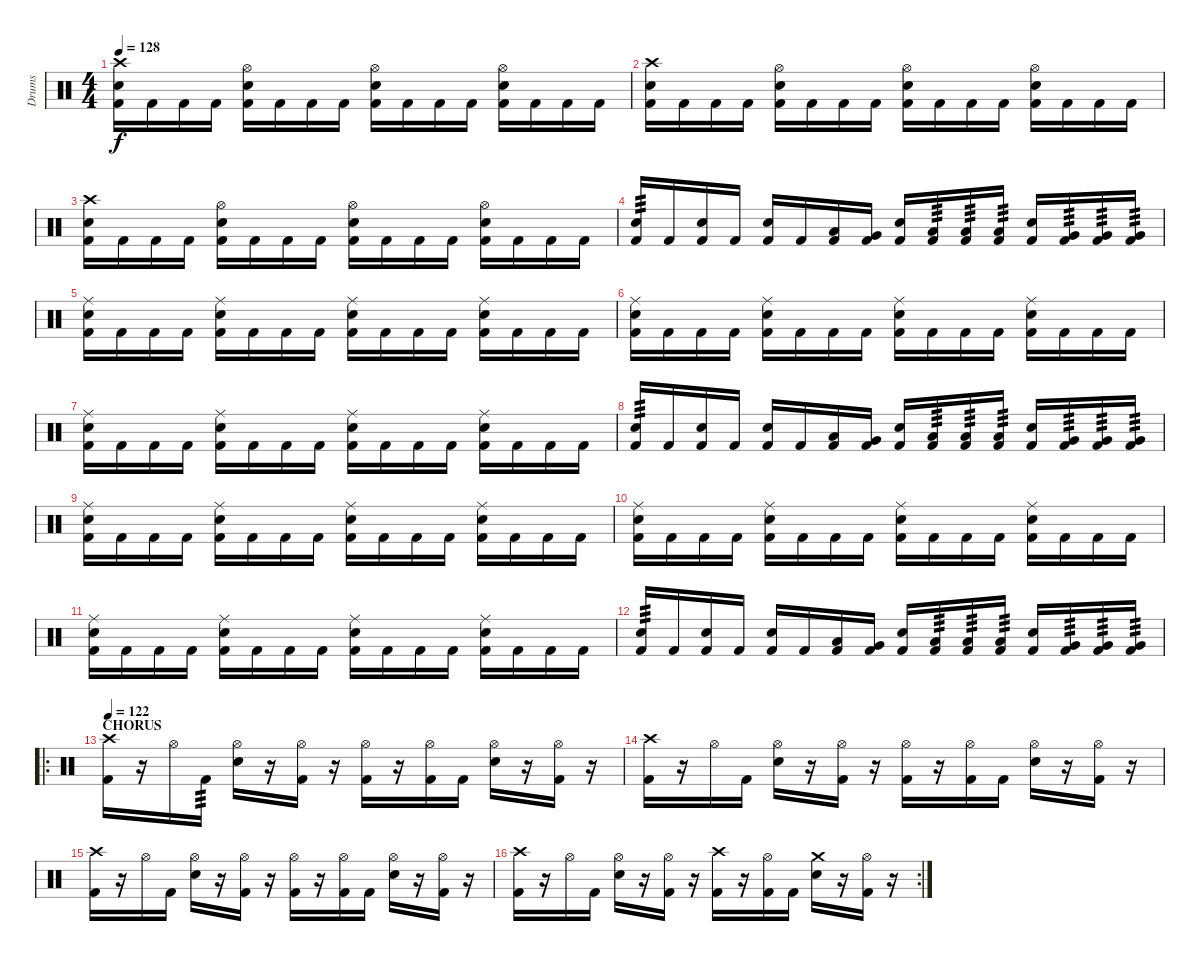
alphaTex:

\track ("Drums" "Drums") {instrument percussion}
\staff {score}
\articulation defaults
\ts (4 4)
\tempo 128
\clef neutral
\ks c
("Crash high (hit)" "Electric Snare (hit)" "Kick (hit) 2").16{dy f} "Kick (hit) 2".16 "Kick (hit) 2".16 "Kick (hit) 2".16 ("Hi-Hat (open)" "Electric Snare (hit)" "Kick (hit) 2").16 "Kick (hit) 2".16 "Kick (hit) 2".16 "Kick (hit) 2".16 ("Hi-Hat (open)" "Electric Snare (hit)" "Kick (hit) 2").16 "Kick (hit) 2".16 "Kick (hit) 2".16 "Kick (hit) 2".16 ("Hi-Hat (open)" "Electric Snare (hit)" "Kick (hit) 2").16 "Kick (hit) 2".16 "Kick (hit) 2".16 "Kick (hit) 2".16 |
("Crash high (hit)" "Electric Snare (hit)" "Kick (hit) 2").16 "Kick (hit) 2".16 "Kick (hit) 2".16 "Kick (hit) 2".16 ("Hi-Hat (open)" "Electric Snare (hit)" "Kick (hit) 2").16 "Kick (hit) 2".16 "Kick (hit) 2".16 "Kick (hit) 2".16 ("Hi-Hat (open)" "Electric Snare (hit)" "Kick (hit) 2").16 "Kick (hit) 2".16 "Kick (hit) 2".16 "Kick (hit) 2".16 ("Hi-Hat (open)" "Electric Snare (hit)" "Kick (hit) 2").16 "Kick (hit) 2".16 "Kick (hit) 2".16 "Kick (hit) 2".16 |
("Crash high (hit)" "Electric Snare (hit)" "Kick (hit) 2").16 "Kick (hit) 2".16 "Kick (hit) 2".16 "Kick (hit) 2".16 ("Hi-Hat (open)" "Electric Snare (hit)" "Kick (hit) 2").16 "Kick (hit) 2".16 "Kick (hit) 2".16 "Kick (hit) 2".16 ("Hi-Hat (open)" "Electric Snare (hit)" "Kick (hit) 2").16 "Kick (hit) 2".16 "Kick (hit) 2".16 "Kick (hit) 2".16 ("Hi-Hat (open)" "Electric Snare (hit)" "Kick (hit) 2").16 "Kick (hit) 2".16 "Kick (hit) 2".16 "Kick (hit) 2".16 |
("Electric Snare (hit)" "Kick (hit) 2").16{tp 3} "Kick (hit) 2".16 ("Electric Snare (hit)" "Kick (hit) 2").16 "Kick (hit) 2".16 ("Electric Snare (hit)" "Kick (hit) 2").16 "Kick (hit) 2".16 ("Low Tom (hit)" "Kick (hit) 2").16 ("Very Low Tom (hit)" "Kick (hit) 2").16 ("Electric Snare (hit)" "Kick (hit) 2").16 ("Low Tom (hit)" "Kick (hit) 2").16{tp 3} ("Low Tom (hit)" "Kick (hit) 2").16{tp 3} ("Low Tom (hit)" "Kick (hit) 2").16{tp 3} ("Electric Snare (hit)" "Kick (hit) 2").16 ("Very Low Tom (hit)" "Kick (hit) 2").16{tp 3} ("Very Low Tom (hit)" "Kick (hit) 2").16{tp 3} ("Very Low Tom (hit)" "Kick (hit) 2").16{tp 3} |
("Ride (middle)" "Electric Snare (hit)" "Kick (hit) 2").16 "Kick (hit) 2".16 "Kick (hit) 2".16 "Kick (hit) 2".16 ("Ride (middle)" "Electric Snare (hit)" "Kick (hit) 2").16 "Kick (hit) 2".16 "Kick (hit) 2".16 "Kick (hit) 2".16 ("Ride (middle)" "Electric Snare (hit)" "Kick (hit) 2").16 "Kick (hit) 2".16 "Kick (hit) 2".16 "Kick (hit) 2".16 ("Ride (middle)" "Electric Snare (hit)" "Kick (hit) 2").16 "Kick (hit) 2".16 "Kick (hit) 2".16 "Kick (hit) 2".16 |
("Ride (middle)" "Electric Snare (hit)" "Kick (hit) 2").16 "Kick (hit) 2".16 "Kick (hit) 2".16 "Kick (hit) 2".16 ("Ride (middle)" "Electric Snare (hit)" "Kick (hit) 2").16 "Kick (hit) 2".16 "Kick (hit) 2".16 "Kick (hit) 2".16 ("Ride (middle)" "Electric Snare (hit)" "Kick (hit) 2").16 "Kick (hit) 2".16 "Kick (hit) 2".16 "Kick (hit) 2".16 ("Ride (middle)" "Electric Snare (hit)" "Kick (hit) 2").16 "Kick (hit) 2".16 "Kick (hit) 2".16 "Kick (hit) 2".16 |
("Ride (middle)" "Electric Snare (hit)" "Kick (hit) 2").16 "Kick (hit) 2".16 "Kick (hit) 2".16 "Kick (hit) 2".16 ("Ride (middle)" "Electric Snare (hit)" "Kick (hit) 2").16 "Kick (hit) 2".16 "Kick (hit) 2".16 "Kick (hit) 2".16 ("Ride (middle)" "Electric Snare (hit)" "Kick (hit) 2").16 "Kick (hit) 2".16 "Kick (hit) 2".16 "Kick (hit) 2".16 ("Ride (middle)" "Electric Snare (hit)" "Kick (hit) 2").16 "Kick (hit) 2".16 "Kick (hit) 2".16 "Kick (hit) 2".16 |
("Electric Snare (hit)" "Kick (hit) 2").16{tp 3} "Kick (hit) 2".16 ("Electric Snare (hit)" "Kick (hit) 2").16 "Kick (hit) 2".16 ("Electric Snare (hit)" "Kick (hit) 2").16 "Kick (hit) 2".16 ("Low Tom (hit)" "Kick (hit) 2").16 ("Very Low Tom (hit)" "Kick (hit) 2").16 ("Electric Snare (hit)" "Kick (hit) 2").16 ("Low Tom (hit)" "Kick (hit) 2").16{tp 3} ("Low Tom (hit)" "Kick (hit) 2").16{tp 3} ("Low Tom (hit)" "Kick (hit) 2").16{tp 3} ("Electric Snare (hit)" "Kick (hit) 2").16 ("Very Low Tom (hit)" "Kick (hit) 2").16{tp 3} ("Very Low Tom (hit)" "Kick (hit) 2").16{tp 3} ("Very Low Tom (hit)" "Kick (hit) 2").16{tp 3} |
("Ride (middle)" "Electric Snare (hit)" "Kick (hit) 2").16 "Kick (hit) 2".16 "Kick (hit) 2".16 "Kick (hit) 2".16 ("Ride (middle)" "Electric Snare (hit)" "Kick (hit) 2").16 "Kick (hit) 2".16 "Kick (hit) 2".16 "Kick (hit) 2".16 ("Ride (middle)" "Electric Snare (hit)" "Kick (hit) 2").16 "Kick (hit) 2".16 "Kick (hit) 2".16 "Kick (hit) 2".16 ("Ride (middle)" "Electric Snare (hit)" "Kick (hit) 2").16 "Kick (hit) 2".16 "Kick (hit) 2".16 "Kick (hit) 2".16 |
("Ride (middle)" "Electric Snare (hit)" "Kick (hit) 2").16 "Kick (hit) 2".16 "Kick (hit) 2".16 "Kick (hit) 2".16 ("Ride (middle)" "Electric Snare (hit)" "Kick (hit) 2").16 "Kick (hit) 2".16 "Kick (hit) 2".16 "Kick (hit) 2".16 ("Ride (middle)" "Electric Snare (hit)" "Kick (hit) 2").16 "Kick (hit) 2".16 "Kick (hit) 2".16 "Kick (hit) 2".16 ("Ride (middle)" "Electric Snare (hit)" "Kick (hit) 2").16 "Kick (hit) 2".16 "Kick (hit) 2".16 "Kick (hit) 2".16 |
("Ride (middle)" "Electric Snare (hit)" "Kick (hit) 2").16 "Kick (hit) 2".16 "Kick (hit) 2".16 "Kick (hit) 2".16 ("Ride (middle)" "Electric Snare (hit)" "Kick (hit) 2").16 "Kick (hit) 2".16 "Kick (hit) 2".16 "Kick (hit) 2".16 ("Ride (middle)" "Electric Snare (hit)" "Kick (hit) 2").16 "Kick (hit) 2".16 "Kick (hit) 2".16 "Kick (hit) 2".16 ("Ride (middle)" "Electric Snare (hit)" "Kick (hit) 2").16 "Kick (hit) 2".16 "Kick (hit) 2".16 "Kick (hit) 2".16 |
("Electric Snare (hit)" "Kick (hit) 2").16{tp 3} "Kick (hit) 2".16 ("Electric Snare (hit)" "Kick (hit) 2").16 "Kick (hit) 2".16 ("Electric Snare (hit)" "Kick (hit) 2").16 "Kick (hit) 2".16 ("Low Tom (hit)" "Kick (hit) 2").16 ("Very Low Tom (hit)" "Kick (hit) 2").16 ("Electric Snare (hit)" "Kick (hit) 2").16 ("Low Tom (hit)" "Kick (hit) 2").16{tp 3} ("Low Tom (hit)" "Kick (hit) 2").16{tp 3} ("Low Tom (hit)" "Kick (hit) 2").16{tp 3} ("Electric Snare (hit)" "Kick (hit) 2").16 ("Very Low Tom (hit)" "Kick (hit) 2").16{tp 3} ("Very Low Tom (hit)" "Kick (hit) 2").16{tp 3} ("Very Low Tom (hit)" "Kick (hit) 2").16{tp 3} |
\ro
\section ("" "CHORUS")
\tempo 122
("Crash high (hit)" "Kick (hit) 2").16 r.16 "Hi-Hat (open)".16 "Kick (hit) 2".16{tp 3} ("Hi-Hat (open)" "Electric Snare (hit)").16 r.16 ("Hi-Hat (open)" "Kick (hit) 2").16 r.16 ("Hi-Hat (open)" "Kick (hit) 2").16 r.16 ("Hi-Hat (open)" "Kick (hit) 2").16 "Kick (hit) 2".16 ("Hi-Hat (open)" "Electric Snare (hit)").16 r.16 ("Hi-Hat (open)" "Kick (hit) 2").16 r.16 |
("Crash high (hit)" "Kick (hit) 2").16 r.16 "Hi-Hat (open)".16 "Kick (hit) 2".16 ("Hi-Hat (open)" "Electric Snare (hit)").16 r.16 ("Hi-Hat (open)" "Kick (hit) 2").16 r.16 ("Hi-Hat (open)" "Kick (hit) 2").16 r.16 ("Hi-Hat (open)" "Kick (hit) 2").16 "Kick (hit) 2".16 ("Hi-Hat (open)" "Electric Snare (hit)").16 r.16 ("Hi-Hat (open)" "Kick (hit) 2").16 r.16 |
("Crash high (hit)" "Kick (hit) 2").16 r.16 "Hi-Hat (open)".16 "Kick (hit) 2".16 ("Hi-Hat (open)" "Electric Snare (hit)").16 r.16 ("Hi-Hat (open)" "Kick (hit) 2").16 r.16 ("Hi-Hat (open)" "Kick (hit) 2").16 r.16 ("Hi-Hat (open)" "Kick (hit) 2").16 "Kick (hit) 2".16 ("Hi-Hat (open)" "Electric Snare (hit)").16 r.16 ("Hi-Hat (open)" "Kick (hit) 2").16 r.16 |
\rc 2
("Crash high (hit)" "Kick (hit) 2").16 r.16 "Hi-Hat (open)".16 "Kick (hit) 2".16 ("Hi-Hat (open)" "Electric Snare (hit)").16 r.16 ("Hi-Hat (open)" "Kick (hit) 2").16 r.16 ("Crash high (hit)" "Kick (hit) 2").16 r.16 ("Hi-Hat (open)" "Kick (hit) 2").16 "Kick (hit) 2".16 ("Crash medium (hit)" "Electric Snare (hit)").16 r.16 ("Hi-Hat (open)" "Kick (hit) 2").16 r.16
